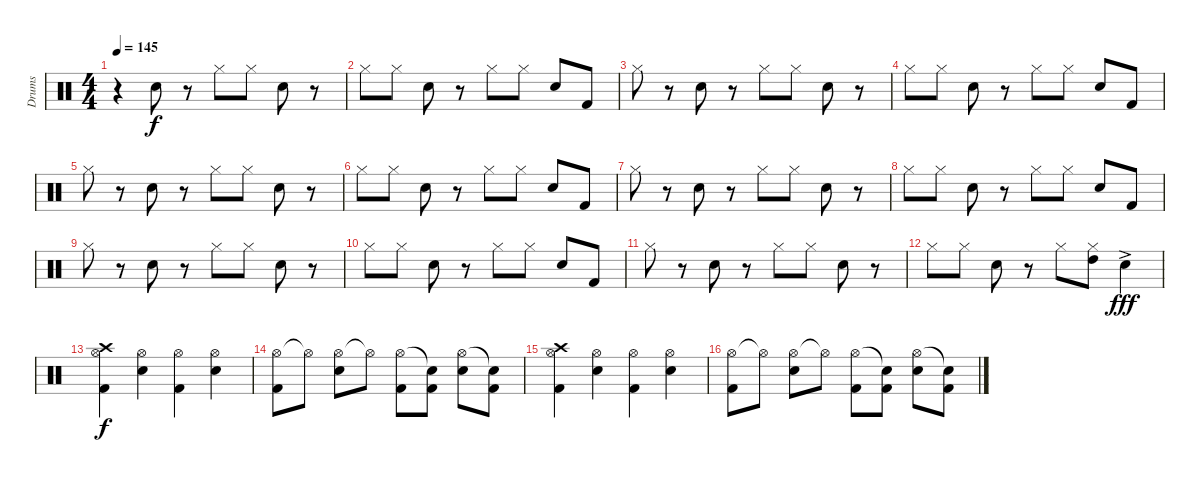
\track ("Drums" "Drums") {instrument percussion}
\staff {score}
\articulation defaults
\ts (4 4)
\tempo 145
\clef neutral
\ks c
r.4{dy f volume 9} "Electric Snare (hit)".8 r.8 "Hi-Hat (closed)".8 "Hi-Hat (closed)".8 "Electric Snare (hit)".8 r.8 |
"Hi-Hat (closed)".8 "Hi-Hat (closed)".8 "Electric Snare (hit)".8 r.8 "Hi-Hat (closed)".8 "Hi-Hat (closed)".8 "Electric Snare (hit)".8 "Kick (hit) 2".8 |
"Hi-Hat (closed)".8 r.8 "Electric Snare (hit)".8 r.8 "Hi-Hat (closed)".8 "Hi-Hat (closed)".8 "Electric Snare (hit)".8 r.8 |
"Hi-Hat (closed)".8 "Hi-Hat (closed)".8 "Electric Snare (hit)".8 r.8 "Hi-Hat (closed)".8 "Hi-Hat (closed)".8 "Electric Snare (hit)".8 "Kick (hit) 2".8 |
"Hi-Hat (closed)".8 r.8 "Electric Snare (hit)".8 r.8 "Hi-Hat (closed)".8 "Hi-Hat (closed)".8 "Electric Snare (hit)".8 r.8 |
"Hi-Hat (closed)".8 "Hi-Hat (closed)".8 "Electric Snare (hit)".8 r.8 "Hi-Hat (closed)".8 "Hi-Hat (closed)".8 "Electric Snare (hit)".8 "Kick (hit) 2".8 |
"Hi-Hat (closed)".8 r.8 "Electric Snare (hit)".8 r.8 "Hi-Hat (closed)".8 "Hi-Hat (closed)".8 "Electric Snare (hit)".8 r.8 |
"Hi-Hat (closed)".8 "Hi-Hat (closed)".8 "Electric Snare (hit)".8 r.8 "Hi-Hat (closed)".8 "Hi-Hat (closed)".8 "Electric Snare (hit)".8 "Kick (hit) 2".8 |
"Hi-Hat (closed)".8 r.8 "Electric Snare (hit)".8 r.8 "Hi-Hat (closed)".8 "Hi-Hat (closed)".8 "Electric Snare (hit)".8 r.8 |
"Hi-Hat (closed)".8 "Hi-Hat (closed)".8 "Electric Snare (hit)".8 r.8 "Hi-Hat (closed)".8 "Hi-Hat (closed)".8 "Electric Snare (hit)".8 "Kick (hit) 2".8 |
"Hi-Hat (closed)".8 r.8 "Electric Snare (hit)".8 r.8 "Hi-Hat (closed)".8 "Hi-Hat (closed)".8 "Electric Snare (hit)".8 r.8 |
"Hi-Hat (closed)".8 "Hi-Hat (closed)".8 "Electric Snare (hit)".8 r.8 "Hi-Hat (closed)".8 ("Hi-Hat (closed)" "High Tom (hit)").8 "Electric Snare (hit)"{ac}.4{dy fff volume 14} |
("Hi-Hat (open)" "Kick (hit) 2" "Crash high (hit)").4{dy f} ("Hi-Hat (open)" "Electric Snare (hit)").4 ("Hi-Hat (open)" "Kick (hit) 2").4 ("Hi-Hat (open)" "Electric Snare (hit)").4 |
("Hi-Hat (open)" "Kick (hit) 2").8 "Hi-Hat (open)"{t}.8 ("Hi-Hat (open)" "Electric Snare (hit)").8 "Hi-Hat (open)"{t}.8 ("Hi-Hat (open)" "Kick (hit) 2").8 ("Snare (hit)"{t} "Kick (hit) 2").8 ("Hi-Hat (open)" "Electric Snare (hit)").8 ("Snare (hit)"{t} "Kick (hit) 2").8 |
("Hi-Hat (open)" "Kick (hit) 2" "Crash high (hit)").4 ("Hi-Hat (open)" "Electric Snare (hit)").4 ("Hi-Hat (open)" "Kick (hit) 2").4 ("Hi-Hat (open)" "Electric Snare (hit)").4 |
("Hi-Hat (open)" "Kick (hit) 2").8 "Hi-Hat (open)"{t}.8 ("Hi-Hat (open)" "Electric Snare (hit)").8 "Hi-Hat (open)"{t}.8 ("Hi-Hat (open)" "Kick (hit) 2").8 ("Snare (hit)"{t} "Kick (hit) 2").8 ("Hi-Hat (open)" "Electric Snare (hit)").8 ("Snare (hit)"{t} "Kick (hit) 2").8
